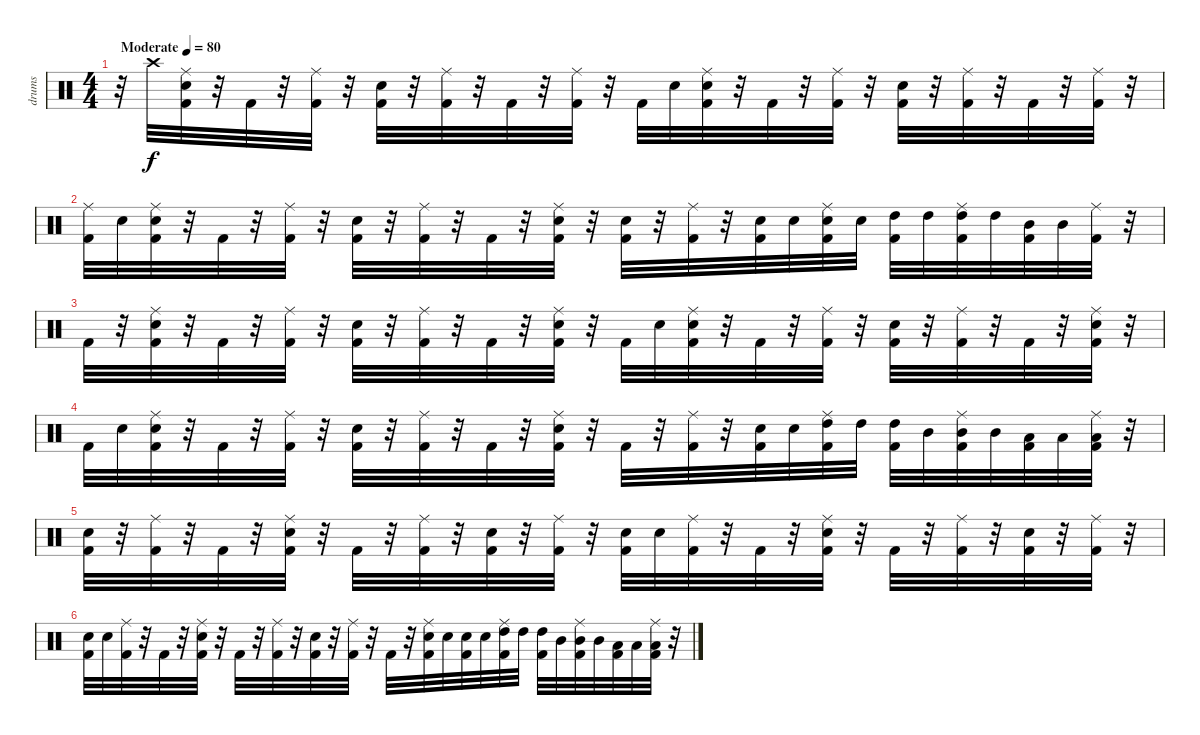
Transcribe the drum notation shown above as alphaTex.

\track ("drums" "drums") {instrument percussion}
\staff {score}
\articulation defaults
\ts (4 4)
\tempo (80 "Moderate")
\clef neutral
\ks c
r.32{dy f} "Crash high (hit)".32 ("Snare (hit) 2" "Ride (middle)" "Kick (hit) 2").32 r.32 "Kick (hit) 2".32 r.32 ("Ride (middle)" "Kick (hit) 2").32 r.32 ("Snare (hit) 2" "Kick (hit) 2").32 r.32 ("Ride (middle)" "Kick (hit) 2").32 r.32 "Kick (hit) 2".32 r.32 ("Ride (middle)" "Kick (hit) 2").32 r.32 "Kick (hit) 2".32 "Snare (hit) 2".32 ("Ride (middle)" "Snare (hit) 2" "Kick (hit) 2").32 r.32 "Kick (hit) 2".32 r.32 ("Ride (middle)" "Kick (hit) 2").32 r.32 ("Snare (hit) 2" "Kick (hit) 2").32 r.32 ("Ride (middle)" "Kick (hit) 2").32 r.32 "Kick (hit) 2".32 r.32 ("Ride (middle)" "Kick (hit) 2").32 r.32 |
("Ride (middle)" "Kick (hit) 2").32 "Snare (hit) 2".32 ("Snare (hit) 2" "Ride (middle)" "Kick (hit) 2").32 r.32 "Kick (hit) 2".32 r.32 ("Ride (middle)" "Kick (hit) 2").32 r.32 ("Snare (hit) 2" "Kick (hit) 2").32 r.32 ("Ride (middle)" "Kick (hit) 2").32 r.32 "Kick (hit) 2".32 r.32 ("Snare (hit) 2" "Ride (middle)" "Kick (hit) 2").32 r.32 ("Snare (hit) 2" "Kick (hit) 2").32 r.32 ("Ride (middle)" "Kick (hit) 2").32 r.32 ("Snare (hit) 2" "Kick (hit) 2").32 "Snare (hit) 2".32 ("Snare (hit) 2" "Ride (middle)" "Kick (hit) 2").32 "Snare (hit) 2".32 ("High Tom (hit)" "Kick (hit) 2").32 "High Tom (hit)".32 ("High Tom (hit)" "Ride (middle)" "Kick (hit) 2").32 "High Tom (hit)".32 ("Mid Tom (hit)" "Kick (hit) 2").32 "Mid Tom (hit)".32 ("Ride (middle)" "Kick (hit) 2").32 r.32 |
"Kick (hit) 2".32 r.32 ("Snare (hit) 2" "Ride (middle)" "Kick (hit) 2").32 r.32 "Kick (hit) 2".32 r.32 ("Ride (middle)" "Kick (hit) 2").32 r.32 ("Snare (hit) 2" "Kick (hit) 2").32 r.32 ("Ride (middle)" "Kick (hit) 2").32 r.32 "Kick (hit) 2".32 r.32 ("Snare (hit) 2" "Ride (middle)" "Kick (hit) 2").32 r.32 "Kick (hit) 2".32 "Snare (hit) 2".32 ("Snare (hit) 2" "Ride (middle)" "Kick (hit) 2").32 r.32 "Kick (hit) 2".32 r.32 ("Ride (middle)" "Kick (hit) 2").32 r.32 ("Snare (hit) 2" "Kick (hit) 2").32 r.32 ("Ride (middle)" "Kick (hit) 2").32 r.32 "Kick (hit) 2".32 r.32 ("Snare (hit) 2" "Ride (middle)" "Kick (hit) 2").32 r.32 |
"Kick (hit) 2".32 "Snare (hit) 2".32 ("Snare (hit) 2" "Ride (middle)" "Kick (hit) 2").32 r.32 "Kick (hit) 2".32 r.32 ("Ride (middle)" "Kick (hit) 2").32 r.32 ("Snare (hit) 2" "Kick (hit) 2").32 r.32 ("Ride (middle)" "Kick (hit) 2").32 r.32 "Kick (hit) 2".32 r.32 ("Snare (hit) 2" "Ride (middle)" "Kick (hit) 2").32 r.32 "Kick (hit) 2".32 r.32 ("Ride (middle)" "Kick (hit) 2").32 r.32 ("Snare (hit) 2" "Kick (hit) 2").32 "Snare (hit) 2".32 ("High Tom (hit)" "Ride (middle)" "Kick (hit) 2").32 "High Tom (hit)".32 ("High Tom (hit)" "Kick (hit) 2").32 "Mid Tom (hit)".32 ("Mid Tom (hit)" "Ride (middle)" "Kick (hit) 2").32 "Mid Tom (hit)".32 ("Low Tom (hit)" "Kick (hit) 2").32 "Low Tom (hit)".32 ("Low Tom (hit)" "Ride (middle)" "Kick (hit) 2").32 r.32 |
("Snare (hit) 2" "Kick (hit) 2").32 r.32 ("Ride (middle)" "Kick (hit) 2").32 r.32 "Kick (hit) 2".32 r.32 ("Snare (hit) 2" "Ride (middle)" "Kick (hit) 2").32 r.32 "Kick (hit) 2".32 r.32 ("Ride (middle)" "Kick (hit) 2").32 r.32 ("Snare (hit) 2" "Kick (hit) 2").32 r.32 ("Ride (middle)" "Kick (hit) 2").32 r.32 ("Snare (hit) 2" "Kick (hit) 2").32 "Snare (hit) 2".32 ("Ride (middle)" "Kick (hit) 2").32 r.32 "Kick (hit) 2".32 r.32 ("Snare (hit) 2" "Ride (middle)" "Kick (hit) 2").32 r.32 "Kick (hit) 2".32 r.32 ("Ride (middle)" "Kick (hit) 2").32 r.32 ("Snare (hit) 2" "Kick (hit) 2").32 r.32 ("Ride (middle)" "Kick (hit) 2").32 r.32 |
("Snare (hit) 2" "Kick (hit) 2").32 "Snare (hit) 2".32 ("Ride (middle)" "Kick (hit) 2").32 r.32 "Kick (hit) 2".32 r.32 ("Snare (hit) 2" "Ride (middle)" "Kick (hit) 2").32 r.32 "Kick (hit) 2".32 r.32 ("Ride (middle)" "Kick (hit) 2").32 r.32 ("Snare (hit) 2" "Kick (hit) 2").32 r.32 ("Ride (middle)" "Kick (hit) 2").32 r.32 "Kick (hit) 2".32 r.32 ("Snare (hit) 2" "Ride (middle)" "Kick (hit) 2").32 "Snare (hit) 2".32 ("Snare (hit) 2" "Kick (hit) 2").32 "Snare (hit) 2".32 ("High Tom (hit)" "Ride (middle)" "Kick (hit) 2").32 "High Tom (hit)".32 ("High Tom (hit)" "Kick (hit) 2").32 "Mid Tom (hit)".32 ("Mid Tom (hit)" "Ride (middle)" "Kick (hit) 2").32 "Mid Tom (hit)".32 ("Low Tom (hit)" "Kick (hit) 2").32 "Low Tom (hit)".32 ("Low Tom (hit)" "Ride (middle)" "Kick (hit) 2").32 r.32
